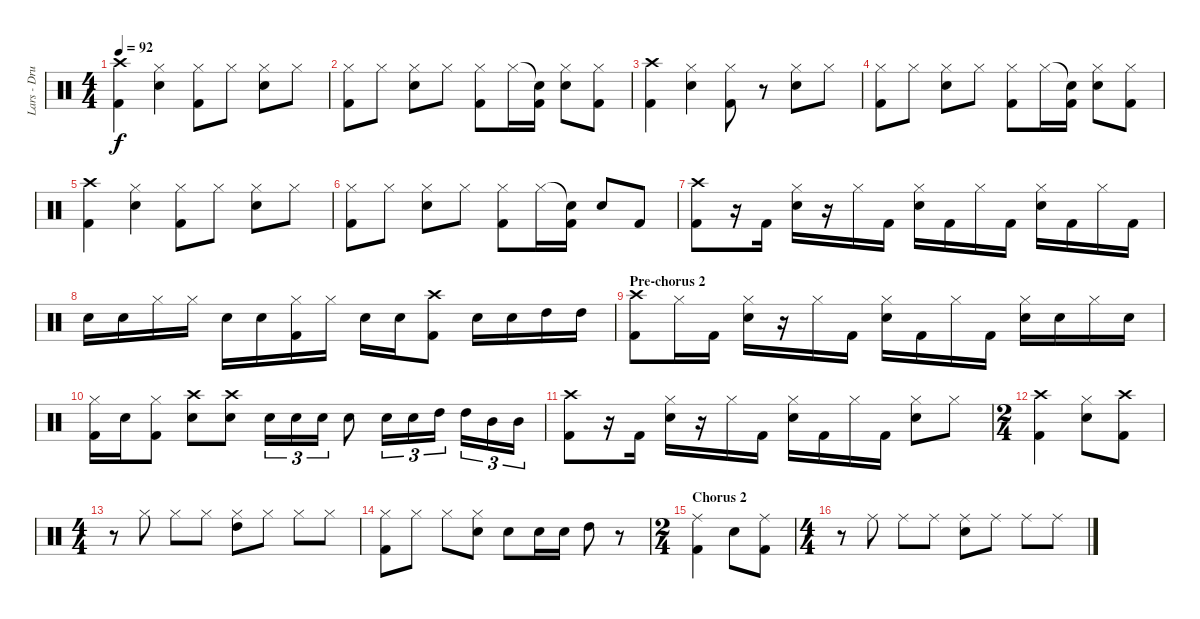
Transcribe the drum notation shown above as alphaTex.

\track ("Lars - Drums" "Lars - Dru") {instrument percussion}
\staff {score}
\articulation defaults
\ts (4 4)
\tempo 92
\clef neutral
\ks c
("Crash high (hit)" "Kick (hit) 2").4{dy f} ("Hi-Hat (closed)" "Electric Snare (hit)").4 ("Hi-Hat (closed)" "Kick (hit) 2").8 "Hi-Hat (closed)".8 ("Hi-Hat (closed)" "Electric Snare (hit)").8 "Hi-Hat (closed)".8 |
("Hi-Hat (closed)" "Kick (hit) 2").8 "Hi-Hat (closed)".8 ("Hi-Hat (closed)" "Electric Snare (hit)").8 "Hi-Hat (closed)".8 ("Hi-Hat (closed)" "Kick (hit) 2").8 "Hi-Hat (closed)".16 ("Snare (hit)"{t} "Kick (hit) 2").16 ("Hi-Hat (closed)" "Electric Snare (hit)").8 ("Hi-Hat (closed)" "Kick (hit) 2").8 |
("Crash high (hit)" "Kick (hit) 2").4 ("Hi-Hat (closed)" "Electric Snare (hit)").4 ("Hi-Hat (closed)" "Kick (hit) 2").8 r.8 ("Hi-Hat (closed)" "Electric Snare (hit)").8 "Hi-Hat (closed)".8 |
("Hi-Hat (closed)" "Kick (hit) 2").8 "Hi-Hat (closed)".8 ("Hi-Hat (closed)" "Electric Snare (hit)").8 "Hi-Hat (closed)".8 ("Hi-Hat (closed)" "Kick (hit) 2").8 "Hi-Hat (closed)".16 ("Snare (hit)"{t} "Kick (hit) 2").16 ("Hi-Hat (closed)" "Electric Snare (hit)").8 ("Hi-Hat (closed)" "Kick (hit) 2").8 |
("Crash high (hit)" "Kick (hit) 2").4 ("Hi-Hat (closed)" "Electric Snare (hit)").4 ("Hi-Hat (closed)" "Kick (hit) 2").8 "Hi-Hat (closed)".8 ("Hi-Hat (closed)" "Electric Snare (hit)").8 "Hi-Hat (closed)".8 |
("Hi-Hat (closed)" "Kick (hit) 2").8 "Hi-Hat (closed)".8 ("Hi-Hat (closed)" "Electric Snare (hit)").8 "Hi-Hat (closed)".8 ("Hi-Hat (closed)" "Kick (hit) 2").8 "Hi-Hat (closed)".16 ("Snare (hit)"{t} "Kick (hit) 2").16 "Electric Snare (hit)".8 "Kick (hit) 2".8 |
("Crash high (hit)" "Kick (hit) 2").8 r.16 "Kick (hit) 2".16 ("Hi-Hat (closed)" "Electric Snare (hit)").16 r.16 "Hi-Hat (closed)".16 "Kick (hit) 2".16 ("Hi-Hat (closed)" "Electric Snare (hit)").16 "Kick (hit) 2".16 "Hi-Hat (closed)".16 "Kick (hit) 2".16 ("Hi-Hat (closed)" "Electric Snare (hit)").16 "Kick (hit) 2".16 "Hi-Hat (closed)".16 "Kick (hit) 2".16 |
"Electric Snare (hit)".16 "Electric Snare (hit)".16 "Hi-Hat (closed)".16 "Hi-Hat (closed)".16 "Electric Snare (hit)".16 "Electric Snare (hit)".16 ("Hi-Hat (closed)" "Kick (hit) 2").16 "Hi-Hat (closed)".16 "Electric Snare (hit)".16 "Electric Snare (hit)".16 ("Crash high (hit)" "Kick (hit) 2").8 "Electric Snare (hit)".16 "Electric Snare (hit)".16 "High Tom (hit)".16 "High Tom (hit)".16 |
\section ("" "Pre-chorus 2")
("Crash high (hit)" "Kick (hit) 2").8 "Hi-Hat (closed)".16 "Kick (hit) 2".16 ("Hi-Hat (closed)" "Electric Snare (hit)").16 r.16 "Hi-Hat (closed)".16 "Kick (hit) 2".16 ("Hi-Hat (closed)" "Electric Snare (hit)").16 "Kick (hit) 2".16 "Hi-Hat (closed)".16 "Kick (hit) 2".16 ("Hi-Hat (closed)" "Electric Snare (hit)").16 "Electric Snare (hit)".16 "Hi-Hat (closed)".16 "Electric Snare (hit)".16 |
("Hi-Hat (closed)" "Kick (hit) 2").16 "Electric Snare (hit)".16 ("Hi-Hat (closed)" "Kick (hit) 2").8 ("Crash high (hit)" "Electric Snare (hit)").8 ("Crash high (hit)" "Electric Snare (hit)").8 "Electric Snare (hit)".16{tu (3 2)} "Electric Snare (hit)".16{tu (3 2)} "Electric Snare (hit)".16{tu (3 2)} "Electric Snare (hit)".8 "Electric Snare (hit)".16{tu (3 2)} "Electric Snare (hit)".16{tu (3 2)} "High Tom (hit)".16{tu (3 2)} "High Tom (hit)".16{tu (3 2)} "Mid Tom (hit)".16{tu (3 2)} "Mid Tom (hit)".16{tu (3 2)} |
("Crash high (hit)" "Kick (hit) 2").8 r.16 "Kick (hit) 2".16 ("Hi-Hat (closed)" "Electric Snare (hit)").16 r.16 "Hi-Hat (closed)".16 "Kick (hit) 2".16 ("Hi-Hat (closed)" "Electric Snare (hit)").16 "Kick (hit) 2".16 "Hi-Hat (closed)".16 "Kick (hit) 2".16 ("Hi-Hat (closed)" "Electric Snare (hit)").8 "Hi-Hat (closed)".8 |
\ts (2 4)
("Crash high (hit)" "Kick (hit) 2").4 ("Hi-Hat (closed)" "Electric Snare (hit)").8 ("Crash high (hit)" "Kick (hit) 2").8 |
\ts (4 4)
r.8 "Hi-Hat (closed)".8 "Hi-Hat (closed)".8 "Hi-Hat (closed)".8 ("Hi-Hat (closed)" "High Tom (hit)").8 "Hi-Hat (closed)".8 "Hi-Hat (closed)".8 "Hi-Hat (closed)".8 |
("Hi-Hat (closed)" "Kick (hit) 2").8 "Hi-Hat (closed)".8 "Hi-Hat (closed)".8 ("Hi-Hat (closed)" "Electric Snare (hit)").8 "Electric Snare (hit)".8 "Electric Snare (hit)".16 "Electric Snare (hit)".16 "High Tom (hit)".8 r.8 |
\ts (2 4)
\section ("" "Chorus 2")
("Ride (middle)" "Kick (hit) 2").4 "Electric Snare (hit)".8 ("Ride (middle)" "Kick (hit) 2").8 |
\ts (4 4)
r.8 "Ride (middle)".8 "Ride (middle)".8 "Ride (middle)".8 ("Ride (middle)" "Electric Snare (hit)").8 "Ride (middle)".8 "Ride (middle)".8 "Ride (middle)".8
